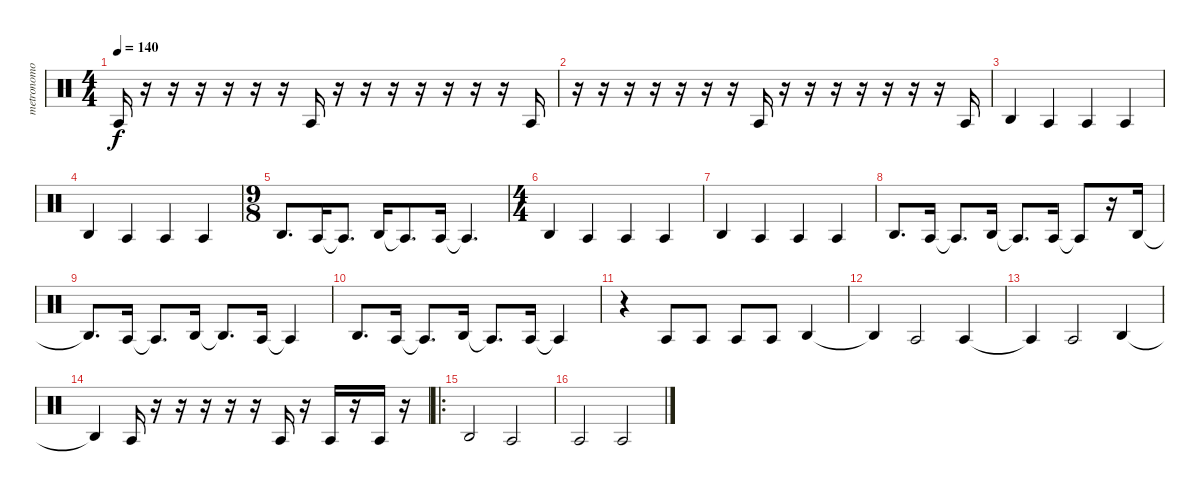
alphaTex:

\track ("metronomo" "metronomo") {mute instrument percussion}
\staff {score}
\articulation defaults
\ts (4 4)
\tempo 140
\clef neutral
\ks c "Agogo tow (hit)".16{dy f}
r.16 r.16 r.16 r.16 r.16 r.16 "Agogo tow (hit)".16 r.16 r.16 r.16 r.16 r.16 r.16 r.16 "Agogo tow (hit)".16 |
r.16 r.16 r.16 r.16 r.16 r.16 r.16 "Agogo tow (hit)".16 r.16 r.16 r.16 r.16 r.16 r.16 r.16 "Agogo tow (hit)".16 |
"Agogo high (hit)".4 "Agogo tow (hit)".4 "Agogo tow (hit)".4 "Agogo tow (hit)".4 |
"Agogo high (hit)".4 "Agogo tow (hit)".4 "Agogo tow (hit)".4 "Agogo tow (hit)".4 |
\ts (9 8)
"Agogo high (hit)".8{d} "Agogo tow (hit)".16 "Agogo tow (hit)"{t}.8{d} "Agogo high (hit)".16 "Agogo tow (hit)"{t}.8{d} "Agogo tow (hit)".16 "Agogo tow (hit)"{t}.4{d} |
\ts (4 4)
"Agogo high (hit)".4 "Agogo tow (hit)".4 "Agogo tow (hit)".4 "Agogo tow (hit)".4 |
"Agogo high (hit)".4 "Agogo tow (hit)".4 "Agogo tow (hit)".4 "Agogo tow (hit)".4 |
"Agogo high (hit)".8{d} "Agogo tow (hit)".16 "Agogo tow (hit)"{t}.8{d} "Agogo high (hit)".16 "Agogo tow (hit)"{t}.8{d} "Agogo tow (hit)".16 "Agogo tow (hit)"{t}.8 r.16 "Agogo high (hit)".16 |
"Agogo high (hit)"{t}.8{d} "Agogo tow (hit)".16 "Agogo tow (hit)"{t}.8{d} "Agogo high (hit)".16 "Agogo high (hit)"{t}.8{d} "Agogo tow (hit)".16 "Agogo tow (hit)"{t}.4 |
"Agogo high (hit)".8{d} "Agogo tow (hit)".16 "Agogo tow (hit)"{t}.8{d} "Agogo high (hit)".16 "Agogo tow (hit)"{t}.8{d} "Agogo tow (hit)".16 "Agogo tow (hit)"{t}.4 |
r.4 "Agogo tow (hit)".8 "Agogo tow (hit)".8 "Agogo tow (hit)".8 "Agogo tow (hit)".8 "Agogo high (hit)".4 |
"Agogo high (hit)"{t}.4 "Agogo tow (hit)".2 "Agogo tow (hit)".4 |
"Agogo tow (hit)"{t}.4 "Agogo tow (hit)".2 "Agogo high (hit)".4 |
"Agogo high (hit)"{t}.4 "Agogo tow (hit)".16 r.16 r.16 r.16 r.16 r.16 "Agogo tow (hit)".16 r.16 "Agogo tow (hit)".16 r.16 "Agogo tow (hit)".16 r.16 |
\ro "Agogo high (hit)".2 "Agogo tow (hit)".2
|
"Agogo tow (hit)".2 "Agogo tow (hit)".2
